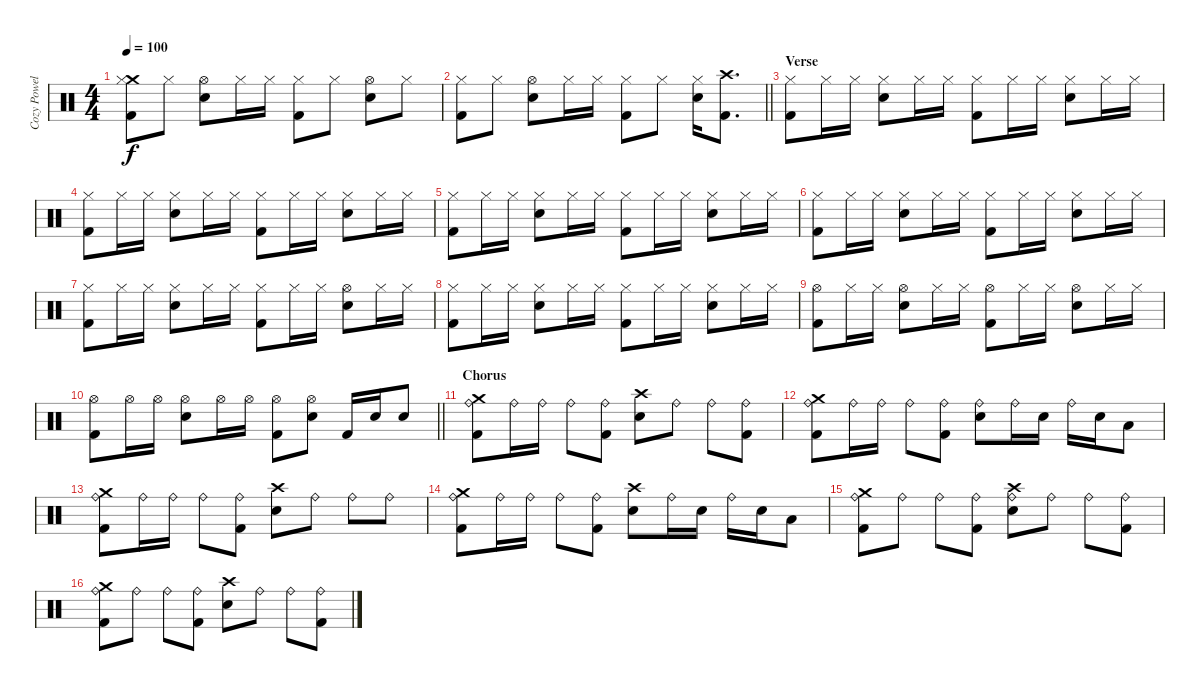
\track ("Cozy Powell " "Cozy Powel") {instrument percussion}
\staff {score}
\articulation defaults
\ts (4 4)
\tempo 100
\clef neutral
\ks c
("Crash medium (hit)" "Hi-Hat (closed)" "Kick (hit) 2").8{dy f} "Hi-Hat (closed)".8 ("Hi-Hat (open)" "Snare (hit) 2").8 "Hi-Hat (closed)".16 "Hi-Hat (closed)".16 ("Hi-Hat (closed)" "Kick (hit) 2").8 "Hi-Hat (closed)".8 ("Hi-Hat (open)" "Snare (hit) 2").8 "Hi-Hat (closed)".8 |
\barLineRight lightlight
("Hi-Hat (closed)" "Kick (hit) 2").8 "Hi-Hat (closed)".8 ("Hi-Hat (open)" "Snare (hit) 2").8 "Hi-Hat (closed)".16 "Hi-Hat (closed)".16 ("Hi-Hat (closed)" "Kick (hit) 2").8 "Hi-Hat (closed)".8 ("Hi-Hat (closed)" "Snare (hit) 2").16 ("Crash high (hit)" "Kick (hit) 2").8{d} |
\section ("" "Verse")
("Hi-Hat (closed)" "Kick (hit) 2").8 "Hi-Hat (closed)".16 "Hi-Hat (closed)".16 ("Hi-Hat (closed)" "Snare (hit) 2").8 "Hi-Hat (closed)".16 "Hi-Hat (closed)".16 ("Hi-Hat (closed)" "Kick (hit) 2").8 "Hi-Hat (closed)".16 "Hi-Hat (closed)".16 ("Hi-Hat (closed)" "Snare (hit) 2").8 "Hi-Hat (closed)".16 "Hi-Hat (closed)".16 |
("Hi-Hat (closed)" "Kick (hit) 2").8 "Hi-Hat (closed)".16 "Hi-Hat (closed)".16 ("Hi-Hat (closed)" "Snare (hit) 2").8 "Hi-Hat (closed)".16 "Hi-Hat (closed)".16 ("Hi-Hat (closed)" "Kick (hit) 2").8 "Hi-Hat (closed)".16 "Hi-Hat (closed)".16 ("Hi-Hat (closed)" "Snare (hit) 2").8 "Hi-Hat (closed)".16 "Hi-Hat (closed)".16 |
("Hi-Hat (closed)" "Kick (hit) 2").8 "Hi-Hat (closed)".16 "Hi-Hat (closed)".16 ("Hi-Hat (closed)" "Snare (hit) 2").8 "Hi-Hat (closed)".16 "Hi-Hat (closed)".16 ("Hi-Hat (closed)" "Kick (hit) 2").8 "Hi-Hat (closed)".16 "Hi-Hat (closed)".16 ("Hi-Hat (closed)" "Snare (hit) 2").8 "Hi-Hat (closed)".16 "Hi-Hat (closed)".16 |
("Hi-Hat (closed)" "Kick (hit) 2").8 "Hi-Hat (closed)".16 "Hi-Hat (closed)".16 ("Hi-Hat (closed)" "Snare (hit) 2").8 "Hi-Hat (closed)".16 "Hi-Hat (closed)".16 ("Hi-Hat (closed)" "Kick (hit) 2").8 "Hi-Hat (closed)".16 "Hi-Hat (closed)".16 ("Hi-Hat (closed)" "Snare (hit) 2").8 "Hi-Hat (closed)".16 "Hi-Hat (closed)".16 |
("Hi-Hat (closed)" "Kick (hit) 2").8 "Hi-Hat (closed)".16 "Hi-Hat (closed)".16 ("Hi-Hat (closed)" "Snare (hit) 2").8 "Hi-Hat (closed)".16 "Hi-Hat (closed)".16 ("Hi-Hat (closed)" "Kick (hit) 2").8 "Hi-Hat (closed)".16 "Hi-Hat (closed)".16 ("Hi-Hat (open)" "Snare (hit) 2").8 "Hi-Hat (closed)".16 "Hi-Hat (closed)".16 |
("Hi-Hat (closed)" "Kick (hit) 2").8 "Hi-Hat (closed)".16 "Hi-Hat (closed)".16 ("Hi-Hat (closed)" "Snare (hit) 2").8 "Hi-Hat (closed)".16 "Hi-Hat (closed)".16 ("Hi-Hat (closed)" "Kick (hit) 2").8 "Hi-Hat (closed)".16 "Hi-Hat (closed)".16 ("Hi-Hat (closed)" "Snare (hit) 2").8 "Hi-Hat (closed)".16 "Hi-Hat (closed)".16 |
("Hi-Hat (open)" "Kick (hit) 2").8 "Hi-Hat (closed)".16 "Hi-Hat (closed)".16 ("Hi-Hat (open)" "Snare (hit) 2").8 "Hi-Hat (closed)".16 "Hi-Hat (closed)".16 ("Hi-Hat (open)" "Kick (hit) 2").8 "Hi-Hat (closed)".16 "Hi-Hat (closed)".16 ("Hi-Hat (open)" "Snare (hit) 2").8 "Hi-Hat (closed)".16 "Hi-Hat (closed)".16 |
\barLineRight lightlight
("Hi-Hat (open)" "Kick (hit) 2").8 "Hi-Hat (open)".16 "Hi-Hat (open)".16 ("Hi-Hat (open)" "Snare (hit) 2").8 "Hi-Hat (open)".16 "Hi-Hat (open)".16 ("Hi-Hat (open)" "Kick (hit) 2").8 ("Hi-Hat (open)" "Snare (hit) 2").8 "Kick (hit) 2".16 "Snare (hit) 2".16 "Snare (hit) 2".8 |
\section ("" "Chorus")
("Crash medium (hit)" "Ride (bell)" "Kick (hit) 2").8 "Ride (bell)".16 "Ride (bell)".16 "Ride (bell)".8 ("Ride (bell)" "Kick (hit) 2").8 ("Crash high (hit)" "Snare (hit) 2").8 "Ride (bell)".8 "Ride (bell)".8 ("Ride (bell)" "Kick (hit) 2").8 |
("Crash medium (hit)" "Ride (bell)" "Kick (hit) 2").8 "Ride (bell)".16 "Ride (bell)".16 "Ride (bell)".8 ("Ride (bell)" "Kick (hit) 2").8 ("Ride (bell)" "Snare (hit) 2").8 "Ride (bell)".16 "Snare (hit) 2".16 "Ride (bell)".16 "Snare (hit) 2".16 "Low Tom (hit)".8 |
("Crash medium (hit)" "Ride (bell)" "Kick (hit) 2").8 "Ride (bell)".16 "Ride (bell)".16 "Ride (bell)".8 ("Ride (bell)" "Kick (hit) 2").8 ("Crash high (hit)" "Snare (hit) 2").8 "Ride (bell)".8 "Ride (bell)".8 "Ride (bell)".8 |
("Crash medium (hit)" "Ride (bell)" "Kick (hit) 2").8 "Ride (bell)".16 "Ride (bell)".16 "Ride (bell)".8 ("Ride (bell)" "Kick (hit) 2").8 ("Crash high (hit)" "Snare (hit) 2").8 "Ride (bell)".16 "Snare (hit) 2".16 "Ride (bell)".16 "Snare (hit) 2".16 "Low Tom (hit)".8 |
("Crash medium (hit)" "Ride (bell)" "Kick (hit) 2").8 "Ride (bell)".8 "Ride (bell)".8 ("Ride (bell)" "Kick (hit) 2").8 ("Crash high (hit)" "Ride (bell)" "Snare (hit) 2").8 "Ride (bell)".8 "Ride (bell)".8 ("Ride (bell)" "Kick (hit) 2").8 |
("Crash medium (hit)" "Ride (bell)" "Kick (hit) 2").8 "Ride (bell)".8 "Ride (bell)".8 ("Ride (bell)" "Kick (hit) 2").8 ("Crash high (hit)" "Snare (hit) 2").8 "Ride (bell)".8 "Ride (bell)".8 ("Ride (bell)" "Kick (hit) 2").8
